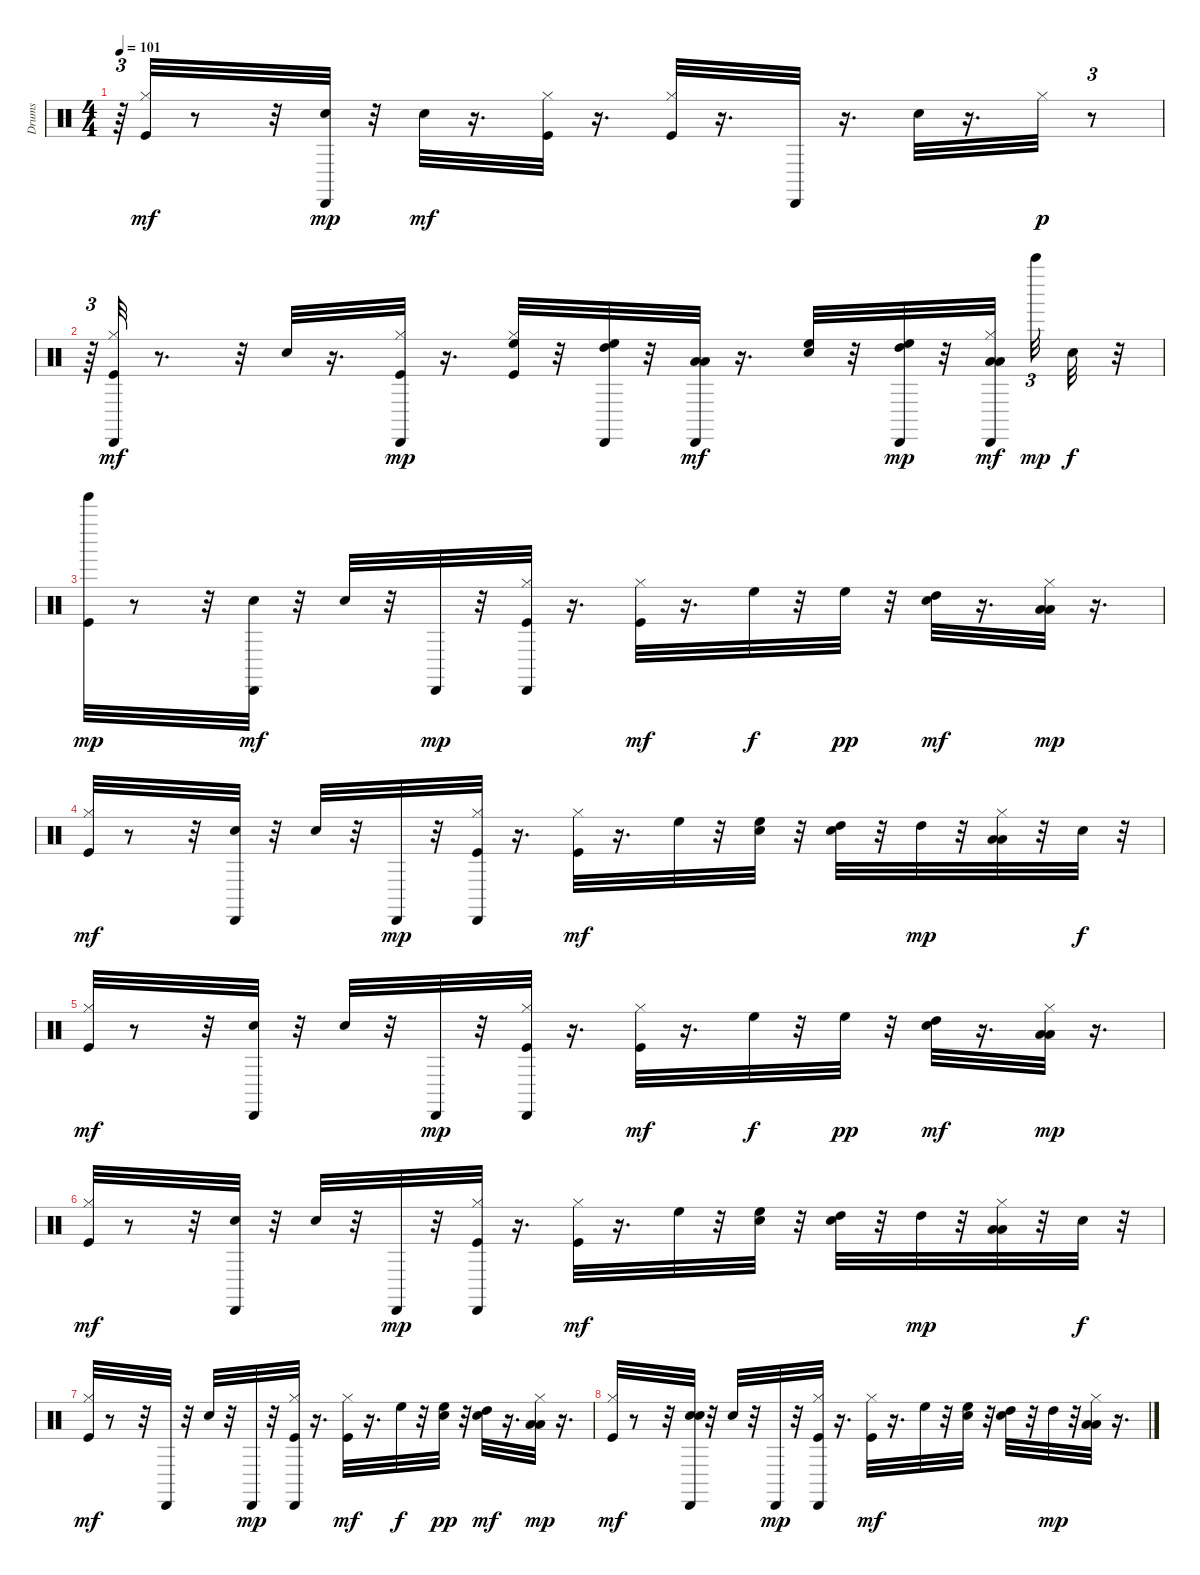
\track ("Drums" "Drums") {instrument percussion}
\staff {score}
\articulation defaults
\ts (4 4)
\tempo 101
\clef neutral
\ks c
r.64{tu (3 2) dy mp} ("Kick (hit)" "Hi-Hat (closed)").32{dy mf} r.8 r.32 ("Hand Clap (hit)" "Cabasa (hit)").32{dy mp} r.32 "Snare (hit) 2".32{dy mf} r.16{d} ("Kick (hit)" "Hi-Hat (closed)").32 r.16{d} ("Kick (hit)" "Hi-Hat (closed)").32 r.16{d} "Cabasa (hit)".32 r.16{d} "Snare (hit) 2".32 r.16{d} "Hi-Hat (closed)".32{dy p} r.8{tu (3 2)} |
r.64{tu (3 2)} ("Kick (hit)" "Hi-Hat (closed)" "Cabasa (hit)").32{dy mf} r.8{d} r.32 "Snare (hit) 2".32 r.16{d} ("Kick (hit)" "Hi-Hat (closed)" "Cabasa (hit)").32{dy mp} r.16{d} ("Kick (hit)" "Hi-Hat (closed)" "High Floor Tom (hit)").32 r.32 ("High Tom (hit)" "High Floor Tom (hit)" "Cabasa (hit)").32 r.32 ("Low Floor Tom (hit)" "Low Tom (hit)" "Cabasa (hit)").32{dy mf} r.16{d} ("Snare (hit) 2" "High Floor Tom (hit)").32 r.32 ("High Tom (hit)" "High Floor Tom (hit)" "Cabasa (hit)").32{dy mp} r.32 ("Low Floor Tom (hit)" "Hi-Hat (closed)" "Low Tom (hit)" "Cabasa (hit)").32{dy mf beam splitsecondary} "Bell Tree (hit)".32{tu (3 2) dy mp} "Hand Clap (hit)".32{dy f} r.32 |
("Kick (hit)" "Tinkle Bell (hit)").32{dy mp} r.8 r.32 ("Hand Clap (hit)" "Cabasa (hit)").32{dy mf} r.32 "Snare (hit) 2".32 r.32 "Cabasa (hit)".32{dy mp} r.32 ("Kick (hit)" "Hi-Hat (closed)" "Cabasa (hit)").32 r.16{d} ("Kick (hit)" "Hi-Hat (closed)").32{dy mf} r.16{d} "High Floor Tom (hit)".32{dy f} r.32 "High Floor Tom (hit)".32{dy pp} r.32 ("Snare (hit) 2" "High Tom (hit)").32{dy mf} r.16{d} ("Low Floor Tom (hit)" "Hi-Hat (closed)" "Low Tom (hit)").32{dy mp} r.16{d} |
("Kick (hit)" "Hi-Hat (closed)").32{dy mf} r.8 r.32 ("Hand Clap (hit)" "Cabasa (hit)").32 r.32 "Snare (hit) 2".32 r.32 "Cabasa (hit)".32{dy mp} r.32 ("Kick (hit)" "Hi-Hat (closed)" "Cabasa (hit)").32 r.16{d} ("Kick (hit)" "Hi-Hat (closed)").32{dy mf} r.16{d} "High Floor Tom (hit)".32 r.32 ("Hand Clap (hit)" "High Floor Tom (hit)").32 r.32 ("Snare (hit) 2" "High Tom (hit)").32 r.32 "High Tom (hit)".32{dy mp} r.32 ("Low Floor Tom (hit)" "Hi-Hat (closed)" "Low Tom (hit)").32 r.32 "Hand Clap (hit)".32{dy f} r.32 |
("Kick (hit)" "Hi-Hat (closed)").32{dy mf} r.8 r.32 ("Hand Clap (hit)" "Cabasa (hit)").32 r.32 "Snare (hit) 2".32 r.32 "Cabasa (hit)".32{dy mp} r.32 ("Kick (hit)" "Hi-Hat (closed)" "Cabasa (hit)").32 r.16{d} ("Kick (hit)" "Hi-Hat (closed)").32{dy mf} r.16{d} "High Floor Tom (hit)".32{dy f} r.32 "High Floor Tom (hit)".32{dy pp} r.32 ("Snare (hit) 2" "High Tom (hit)").32{dy mf} r.16{d} ("Low Floor Tom (hit)" "Hi-Hat (closed)" "Low Tom (hit)").32{dy mp} r.16{d} |
("Kick (hit)" "Hi-Hat (closed)").32{dy mf} r.8 r.32 ("Hand Clap (hit)" "Cabasa (hit)").32 r.32 "Snare (hit) 2".32 r.32 "Cabasa (hit)".32{dy mp} r.32 ("Kick (hit)" "Hi-Hat (closed)" "Cabasa (hit)").32 r.16{d} ("Kick (hit)" "Hi-Hat (closed)").32{dy mf} r.16{d} "High Floor Tom (hit)".32 r.32 ("Hand Clap (hit)" "High Floor Tom (hit)").32 r.32 ("Snare (hit) 2" "High Tom (hit)").32 r.32 "High Tom (hit)".32{dy mp} r.32 ("Low Floor Tom (hit)" "Hi-Hat (closed)" "Low Tom (hit)").32 r.32 "Hand Clap (hit)".32{dy f} r.32 |
("Kick (hit)" "Hi-Hat (closed)").32{dy mf} r.8 r.32 "Cabasa (hit)".32 r.32 "Snare (hit) 2".32 r.32 "Cabasa (hit)".32{dy mp} r.32 ("Kick (hit)" "Hi-Hat (closed)" "Cabasa (hit)").32 r.16{d} ("Kick (hit)" "Hi-Hat (closed)").32{dy mf} r.16{d} "High Floor Tom (hit)".32{dy f} r.32 ("Hand Clap (hit)" "High Floor Tom (hit)").32{dy pp} r.32 ("Snare (hit) 2" "High Tom (hit)").32{dy mf} r.16{d} ("Low Floor Tom (hit)" "Hi-Hat (closed)" "Low Tom (hit)").32{dy mp} r.16{d} |
("Kick (hit)" "Hi-Hat (closed)").32{dy mf} r.8 r.32 ("Hand Clap (hit)" "Hand Clap (hit)" "Cabasa (hit)").32 r.32 "Snare (hit) 2".32 r.32 "Cabasa (hit)".32{dy mp} r.32 ("Kick (hit)" "Hi-Hat (closed)" "Cabasa (hit)").32 r.16{d} ("Kick (hit)" "Hi-Hat (closed)").32{dy mf} r.16{d} "High Floor Tom (hit)".32 r.32 ("Hand Clap (hit)" "High Floor Tom (hit)").32 r.32 ("Snare (hit) 2" "High Tom (hit)").32 r.32 "High Tom (hit)".32{dy mp} r.32 ("Low Floor Tom (hit)" "Hi-Hat (closed)" "Low Tom (hit)").32 r.16{d}
